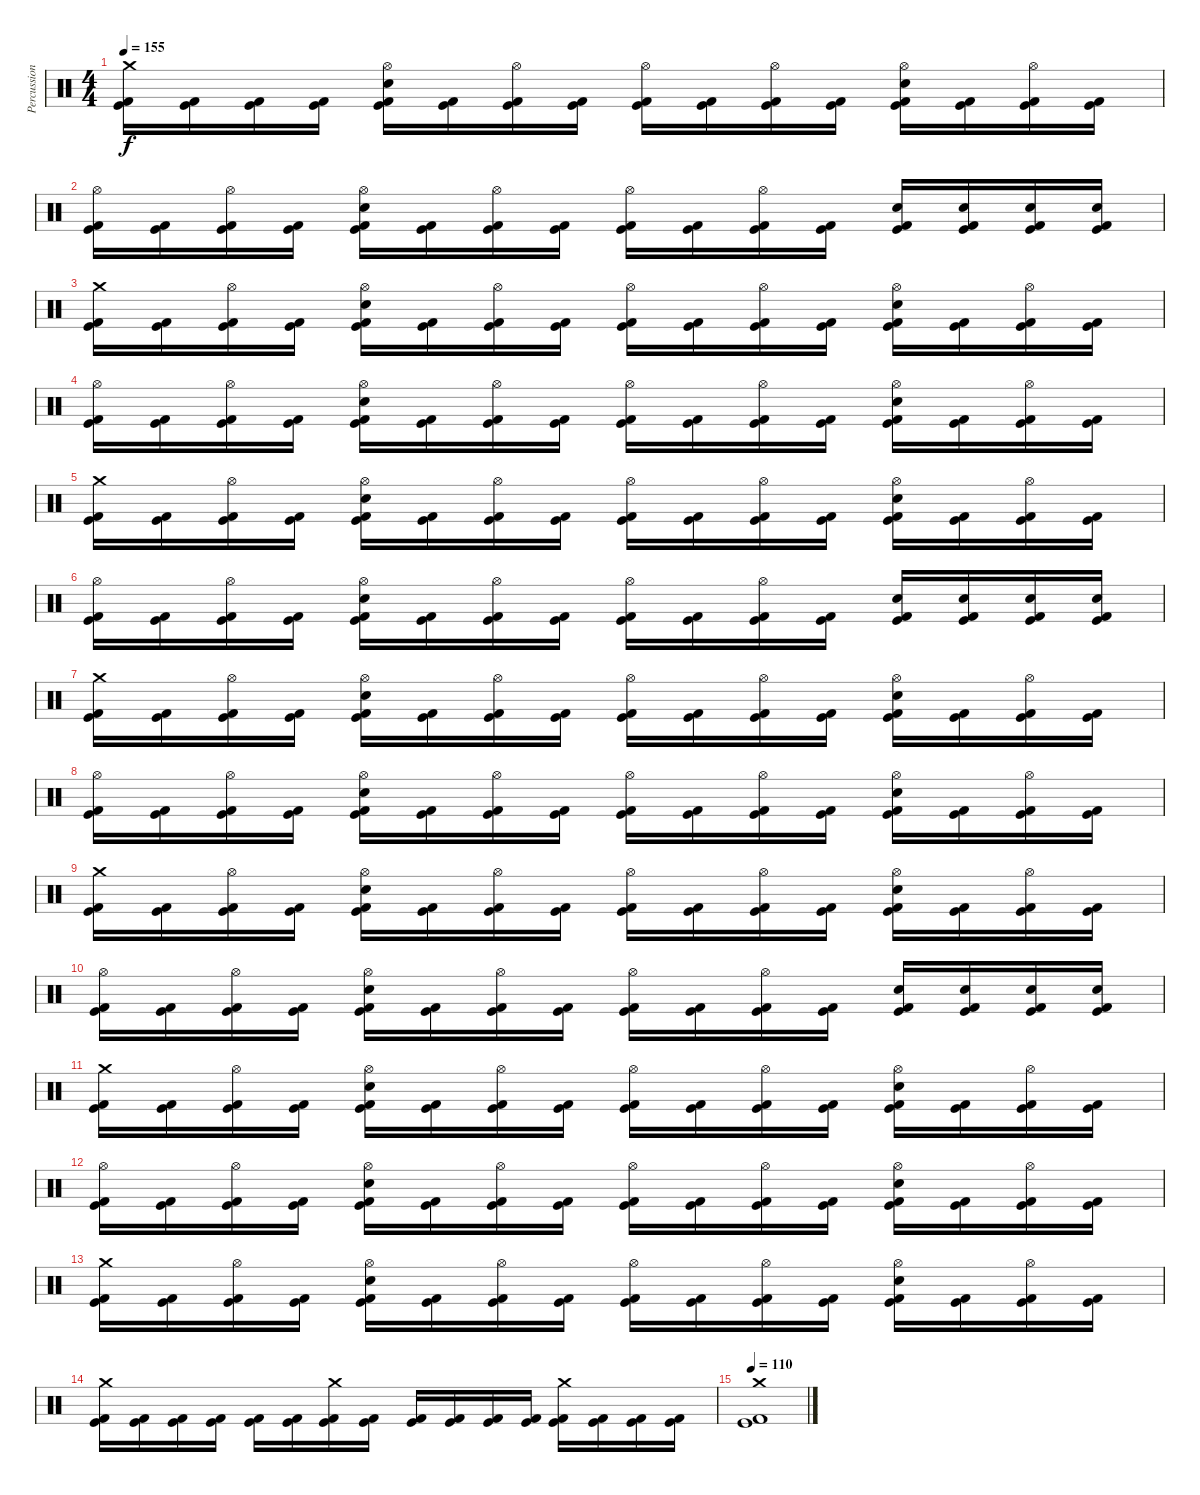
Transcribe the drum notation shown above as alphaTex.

\track ("Percussions" "Percussion") {instrument percussion}
\staff {score}
\articulation defaults
\ts (4 4)
\tempo 155
\clef neutral
\ks c
("Crash medium (hit)" "Kick (hit)" "Kick (hit) 2").16{dy f volume 0} ("Kick (hit)" "Kick (hit) 2").16 ("Kick (hit)" "Kick (hit) 2").16 ("Kick (hit)" "Kick (hit) 2").16 ("Hi-Hat (open)" "Electric Snare (hit)" "Kick (hit)" "Kick (hit) 2").16{volume 7} ("Kick (hit)" "Kick (hit) 2").16 ("Hi-Hat (open)" "Kick (hit)" "Kick (hit) 2").16 ("Kick (hit)" "Kick (hit) 2").16 ("Hi-Hat (open)" "Kick (hit)" "Kick (hit) 2").16 ("Kick (hit)" "Kick (hit) 2").16 ("Hi-Hat (open)" "Kick (hit)" "Kick (hit) 2").16 ("Kick (hit)" "Kick (hit) 2").16 ("Hi-Hat (open)" "Electric Snare (hit)" "Kick (hit)" "Kick (hit) 2").16 ("Kick (hit)" "Kick (hit) 2").16 ("Hi-Hat (open)" "Kick (hit)" "Kick (hit) 2").16 ("Kick (hit)" "Kick (hit) 2").16 |
("Hi-Hat (open)" "Kick (hit)" "Kick (hit) 2").16 ("Kick (hit)" "Kick (hit) 2").16 ("Hi-Hat (open)" "Kick (hit)" "Kick (hit) 2").16 ("Kick (hit)" "Kick (hit) 2").16 ("Hi-Hat (open)" "Electric Snare (hit)" "Kick (hit)" "Kick (hit) 2").16 ("Kick (hit)" "Kick (hit) 2").16 ("Hi-Hat (open)" "Kick (hit)" "Kick (hit) 2").16 ("Kick (hit)" "Kick (hit) 2").16 ("Hi-Hat (open)" "Kick (hit)" "Kick (hit) 2").16 ("Kick (hit)" "Kick (hit) 2").16 ("Hi-Hat (open)" "Kick (hit)" "Kick (hit) 2").16 ("Kick (hit)" "Kick (hit) 2").16 ("Electric Snare (hit)" "Kick (hit)" "Kick (hit) 2").16 ("Electric Snare (hit)" "Kick (hit)" "Kick (hit) 2").16 ("Electric Snare (hit)" "Kick (hit)" "Kick (hit) 2").16 ("Electric Snare (hit)" "Kick (hit)" "Kick (hit) 2").16 |
("Crash medium (hit)" "Kick (hit)" "Kick (hit) 2").16 ("Kick (hit)" "Kick (hit) 2").16 ("Hi-Hat (open)" "Kick (hit)" "Kick (hit) 2").16 ("Kick (hit)" "Kick (hit) 2").16 ("Hi-Hat (open)" "Electric Snare (hit)" "Kick (hit)" "Kick (hit) 2").16 ("Kick (hit)" "Kick (hit) 2").16 ("Hi-Hat (open)" "Kick (hit)" "Kick (hit) 2").16 ("Kick (hit)" "Kick (hit) 2").16 ("Hi-Hat (open)" "Kick (hit)" "Kick (hit) 2").16 ("Kick (hit)" "Kick (hit) 2").16 ("Hi-Hat (open)" "Kick (hit)" "Kick (hit) 2").16 ("Kick (hit)" "Kick (hit) 2").16 ("Hi-Hat (open)" "Electric Snare (hit)" "Kick (hit)" "Kick (hit) 2").16 ("Kick (hit)" "Kick (hit) 2").16 ("Hi-Hat (open)" "Kick (hit)" "Kick (hit) 2").16 ("Kick (hit)" "Kick (hit) 2").16 |
("Hi-Hat (open)" "Kick (hit)" "Kick (hit) 2").16 ("Kick (hit)" "Kick (hit) 2").16 ("Hi-Hat (open)" "Kick (hit)" "Kick (hit) 2").16 ("Kick (hit)" "Kick (hit) 2").16 ("Hi-Hat (open)" "Electric Snare (hit)" "Kick (hit)" "Kick (hit) 2").16 ("Kick (hit)" "Kick (hit) 2").16 ("Hi-Hat (open)" "Kick (hit)" "Kick (hit) 2").16 ("Kick (hit)" "Kick (hit) 2").16 ("Hi-Hat (open)" "Kick (hit)" "Kick (hit) 2").16 ("Kick (hit)" "Kick (hit) 2").16 ("Hi-Hat (open)" "Kick (hit)" "Kick (hit) 2").16 ("Kick (hit)" "Kick (hit) 2").16 ("Hi-Hat (open)" "Electric Snare (hit)" "Kick (hit)" "Kick (hit) 2").16 ("Kick (hit)" "Kick (hit) 2").16 ("Hi-Hat (open)" "Kick (hit)" "Kick (hit) 2").16 ("Kick (hit)" "Kick (hit) 2").16 |
("Crash medium (hit)" "Kick (hit)" "Kick (hit) 2").16{volume 13} ("Kick (hit)" "Kick (hit) 2").16 ("Hi-Hat (open)" "Kick (hit)" "Kick (hit) 2").16 ("Kick (hit)" "Kick (hit) 2").16 ("Hi-Hat (open)" "Electric Snare (hit)" "Kick (hit)" "Kick (hit) 2").16 ("Kick (hit)" "Kick (hit) 2").16 ("Hi-Hat (open)" "Kick (hit)" "Kick (hit) 2").16 ("Kick (hit)" "Kick (hit) 2").16 ("Hi-Hat (open)" "Kick (hit)" "Kick (hit) 2").16 ("Kick (hit)" "Kick (hit) 2").16 ("Hi-Hat (open)" "Kick (hit)" "Kick (hit) 2").16 ("Kick (hit)" "Kick (hit) 2").16 ("Hi-Hat (open)" "Electric Snare (hit)" "Kick (hit)" "Kick (hit) 2").16 ("Kick (hit)" "Kick (hit) 2").16 ("Hi-Hat (open)" "Kick (hit)" "Kick (hit) 2").16 ("Kick (hit)" "Kick (hit) 2").16 |
("Hi-Hat (open)" "Kick (hit)" "Kick (hit) 2").16 ("Kick (hit)" "Kick (hit) 2").16 ("Hi-Hat (open)" "Kick (hit)" "Kick (hit) 2").16 ("Kick (hit)" "Kick (hit) 2").16 ("Hi-Hat (open)" "Electric Snare (hit)" "Kick (hit)" "Kick (hit) 2").16 ("Kick (hit)" "Kick (hit) 2").16 ("Hi-Hat (open)" "Kick (hit)" "Kick (hit) 2").16 ("Kick (hit)" "Kick (hit) 2").16 ("Hi-Hat (open)" "Kick (hit)" "Kick (hit) 2").16 ("Kick (hit)" "Kick (hit) 2").16 ("Hi-Hat (open)" "Kick (hit)" "Kick (hit) 2").16 ("Kick (hit)" "Kick (hit) 2").16 ("Electric Snare (hit)" "Kick (hit)" "Kick (hit) 2").16 ("Electric Snare (hit)" "Kick (hit)" "Kick (hit) 2").16 ("Electric Snare (hit)" "Kick (hit)" "Kick (hit) 2").16 ("Electric Snare (hit)" "Kick (hit)" "Kick (hit) 2").16 |
("Crash medium (hit)" "Kick (hit)" "Kick (hit) 2").16 ("Kick (hit)" "Kick (hit) 2").16 ("Hi-Hat (open)" "Kick (hit)" "Kick (hit) 2").16 ("Kick (hit)" "Kick (hit) 2").16 ("Hi-Hat (open)" "Electric Snare (hit)" "Kick (hit)" "Kick (hit) 2").16 ("Kick (hit)" "Kick (hit) 2").16 ("Hi-Hat (open)" "Kick (hit)" "Kick (hit) 2").16 ("Kick (hit)" "Kick (hit) 2").16 ("Hi-Hat (open)" "Kick (hit)" "Kick (hit) 2").16 ("Kick (hit)" "Kick (hit) 2").16 ("Hi-Hat (open)" "Kick (hit)" "Kick (hit) 2").16 ("Kick (hit)" "Kick (hit) 2").16 ("Hi-Hat (open)" "Electric Snare (hit)" "Kick (hit)" "Kick (hit) 2").16 ("Kick (hit)" "Kick (hit) 2").16 ("Hi-Hat (open)" "Kick (hit)" "Kick (hit) 2").16 ("Kick (hit)" "Kick (hit) 2").16 |
("Hi-Hat (open)" "Kick (hit)" "Kick (hit) 2").16 ("Kick (hit)" "Kick (hit) 2").16 ("Hi-Hat (open)" "Kick (hit)" "Kick (hit) 2").16 ("Kick (hit)" "Kick (hit) 2").16 ("Hi-Hat (open)" "Electric Snare (hit)" "Kick (hit)" "Kick (hit) 2").16 ("Kick (hit)" "Kick (hit) 2").16 ("Hi-Hat (open)" "Kick (hit)" "Kick (hit) 2").16 ("Kick (hit)" "Kick (hit) 2").16 ("Hi-Hat (open)" "Kick (hit)" "Kick (hit) 2").16 ("Kick (hit)" "Kick (hit) 2").16 ("Hi-Hat (open)" "Kick (hit)" "Kick (hit) 2").16 ("Kick (hit)" "Kick (hit) 2").16 ("Hi-Hat (open)" "Electric Snare (hit)" "Kick (hit)" "Kick (hit) 2").16 ("Kick (hit)" "Kick (hit) 2").16 ("Hi-Hat (open)" "Kick (hit)" "Kick (hit) 2").16 ("Kick (hit)" "Kick (hit) 2").16 |
("Crash medium (hit)" "Kick (hit)" "Kick (hit) 2").16 ("Kick (hit)" "Kick (hit) 2").16 ("Hi-Hat (open)" "Kick (hit)" "Kick (hit) 2").16 ("Kick (hit)" "Kick (hit) 2").16 ("Hi-Hat (open)" "Electric Snare (hit)" "Kick (hit)" "Kick (hit) 2").16 ("Kick (hit)" "Kick (hit) 2").16 ("Hi-Hat (open)" "Kick (hit)" "Kick (hit) 2").16 ("Kick (hit)" "Kick (hit) 2").16 ("Hi-Hat (open)" "Kick (hit)" "Kick (hit) 2").16 ("Kick (hit)" "Kick (hit) 2").16 ("Hi-Hat (open)" "Kick (hit)" "Kick (hit) 2").16 ("Kick (hit)" "Kick (hit) 2").16 ("Hi-Hat (open)" "Electric Snare (hit)" "Kick (hit)" "Kick (hit) 2").16 ("Kick (hit)" "Kick (hit) 2").16 ("Hi-Hat (open)" "Kick (hit)" "Kick (hit) 2").16 ("Kick (hit)" "Kick (hit) 2").16 |
("Hi-Hat (open)" "Kick (hit)" "Kick (hit) 2").16 ("Kick (hit)" "Kick (hit) 2").16 ("Hi-Hat (open)" "Kick (hit)" "Kick (hit) 2").16 ("Kick (hit)" "Kick (hit) 2").16 ("Hi-Hat (open)" "Electric Snare (hit)" "Kick (hit)" "Kick (hit) 2").16 ("Kick (hit)" "Kick (hit) 2").16 ("Hi-Hat (open)" "Kick (hit)" "Kick (hit) 2").16 ("Kick (hit)" "Kick (hit) 2").16 ("Hi-Hat (open)" "Kick (hit)" "Kick (hit) 2").16 ("Kick (hit)" "Kick (hit) 2").16 ("Hi-Hat (open)" "Kick (hit)" "Kick (hit) 2").16 ("Kick (hit)" "Kick (hit) 2").16 ("Electric Snare (hit)" "Kick (hit)" "Kick (hit) 2").16 ("Electric Snare (hit)" "Kick (hit)" "Kick (hit) 2").16 ("Electric Snare (hit)" "Kick (hit)" "Kick (hit) 2").16 ("Electric Snare (hit)" "Kick (hit)" "Kick (hit) 2").16 |
("Crash medium (hit)" "Kick (hit)" "Kick (hit) 2").16 ("Kick (hit)" "Kick (hit) 2").16 ("Hi-Hat (open)" "Kick (hit)" "Kick (hit) 2").16 ("Kick (hit)" "Kick (hit) 2").16 ("Hi-Hat (open)" "Electric Snare (hit)" "Kick (hit)" "Kick (hit) 2").16 ("Kick (hit)" "Kick (hit) 2").16 ("Hi-Hat (open)" "Kick (hit)" "Kick (hit) 2").16 ("Kick (hit)" "Kick (hit) 2").16 ("Hi-Hat (open)" "Kick (hit)" "Kick (hit) 2").16 ("Kick (hit)" "Kick (hit) 2").16 ("Hi-Hat (open)" "Kick (hit)" "Kick (hit) 2").16 ("Kick (hit)" "Kick (hit) 2").16 ("Hi-Hat (open)" "Electric Snare (hit)" "Kick (hit)" "Kick (hit) 2").16 ("Kick (hit)" "Kick (hit) 2").16 ("Hi-Hat (open)" "Kick (hit)" "Kick (hit) 2").16 ("Kick (hit)" "Kick (hit) 2").16 |
("Hi-Hat (open)" "Kick (hit)" "Kick (hit) 2").16 ("Kick (hit)" "Kick (hit) 2").16 ("Hi-Hat (open)" "Kick (hit)" "Kick (hit) 2").16 ("Kick (hit)" "Kick (hit) 2").16 ("Hi-Hat (open)" "Electric Snare (hit)" "Kick (hit)" "Kick (hit) 2").16 ("Kick (hit)" "Kick (hit) 2").16 ("Hi-Hat (open)" "Kick (hit)" "Kick (hit) 2").16 ("Kick (hit)" "Kick (hit) 2").16 ("Hi-Hat (open)" "Kick (hit)" "Kick (hit) 2").16 ("Kick (hit)" "Kick (hit) 2").16 ("Hi-Hat (open)" "Kick (hit)" "Kick (hit) 2").16 ("Kick (hit)" "Kick (hit) 2").16 ("Hi-Hat (open)" "Electric Snare (hit)" "Kick (hit)" "Kick (hit) 2").16 ("Kick (hit)" "Kick (hit) 2").16 ("Hi-Hat (open)" "Kick (hit)" "Kick (hit) 2").16 ("Kick (hit)" "Kick (hit) 2").16 |
("Crash medium (hit)" "Kick (hit)" "Kick (hit) 2").16 ("Kick (hit)" "Kick (hit) 2").16 ("Hi-Hat (open)" "Kick (hit)" "Kick (hit) 2").16 ("Kick (hit)" "Kick (hit) 2").16 ("Hi-Hat (open)" "Electric Snare (hit)" "Kick (hit)" "Kick (hit) 2").16 ("Kick (hit)" "Kick (hit) 2").16 ("Hi-Hat (open)" "Kick (hit)" "Kick (hit) 2").16 ("Kick (hit)" "Kick (hit) 2").16 ("Hi-Hat (open)" "Kick (hit)" "Kick (hit) 2").16 ("Kick (hit)" "Kick (hit) 2").16 ("Hi-Hat (open)" "Kick (hit)" "Kick (hit) 2").16 ("Kick (hit)" "Kick (hit) 2").16 ("Hi-Hat (open)" "Electric Snare (hit)" "Kick (hit)" "Kick (hit) 2").16 ("Kick (hit)" "Kick (hit) 2").16 ("Hi-Hat (open)" "Kick (hit)" "Kick (hit) 2").16 ("Kick (hit)" "Kick (hit) 2").16 |
("Crash medium (hit)" "Kick (hit)" "Kick (hit) 2").16 ("Kick (hit)" "Kick (hit) 2").16 ("Kick (hit)" "Kick (hit) 2").16 ("Kick (hit)" "Kick (hit) 2").16 ("Kick (hit)" "Kick (hit) 2").16 ("Kick (hit)" "Kick (hit) 2").16 ("Crash medium (hit)" "Kick (hit)" "Kick (hit) 2").16 ("Kick (hit)" "Kick (hit) 2").16 ("Kick (hit)" "Kick (hit) 2").16 ("Kick (hit)" "Kick (hit) 2").16 ("Kick (hit)" "Kick (hit) 2").16 ("Kick (hit)" "Kick (hit) 2").16 ("Crash medium (hit)" "Kick (hit)" "Kick (hit) 2").16 ("Kick (hit)" "Kick (hit) 2").16 ("Kick (hit)" "Kick (hit) 2").16 ("Kick (hit)" "Kick (hit) 2").16 |
\tempo 110
("Crash medium (hit)" "Kick (hit)" "Kick (hit) 2").1
